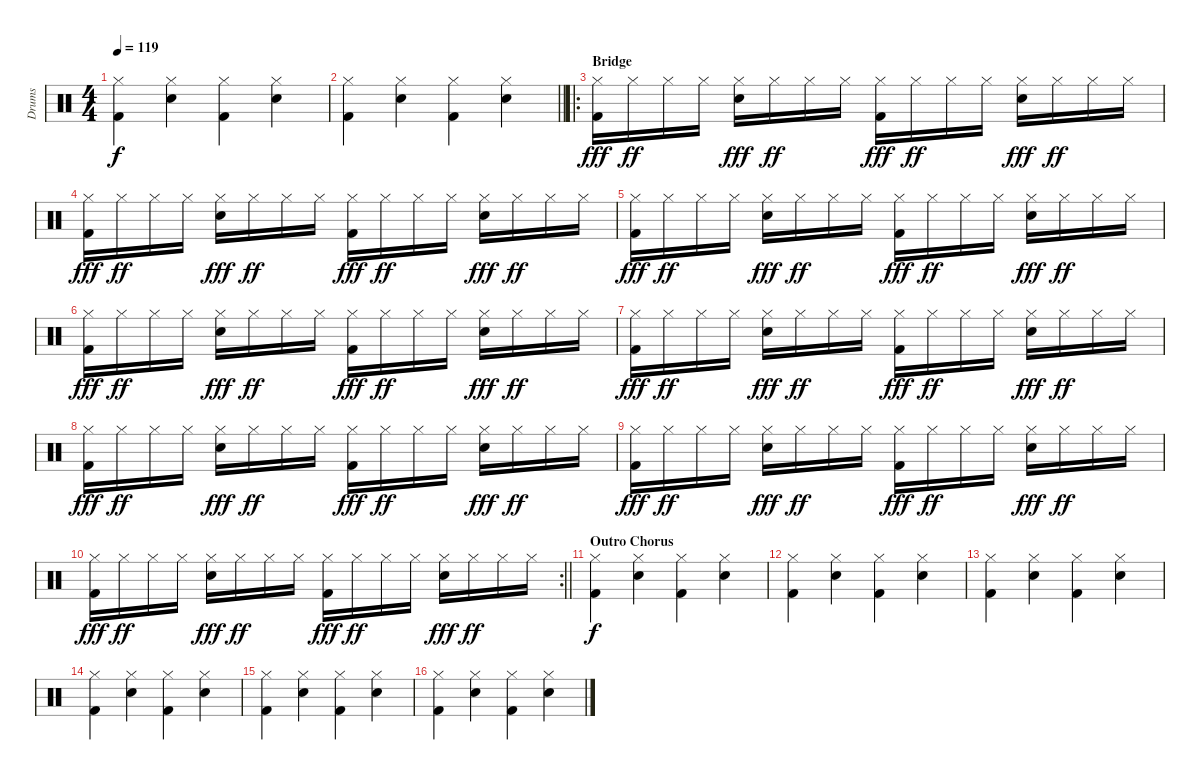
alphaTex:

\track ("Drums" "Drums") {instrument percussion}
\staff {score}
\articulation defaults
\ts (4 4)
\tempo 119
\clef neutral
\ks c
("Hi-Hat (closed)" "Kick (hit) 2").4{dy f} ("Hi-Hat (closed)" "Hand Clap (hit)").4 ("Hi-Hat (closed)" "Kick (hit) 2").4 ("Hi-Hat (closed)" "Hand Clap (hit)").4 |
\barLineRight lightlight
("Hi-Hat (closed)" "Kick (hit) 2").4 ("Hi-Hat (closed)" "Hand Clap (hit)").4 ("Hi-Hat (closed)" "Kick (hit) 2").4 ("Hi-Hat (closed)" "Hand Clap (hit)").4 |
\ro
\section ("" "Bridge")
("Hi-Hat (closed)" "Kick (hit) 2").16{dy fff} "Hi-Hat (closed)".16{dy ff} "Hi-Hat (closed)".16 "Hi-Hat (closed)".16 ("Hi-Hat (closed)" "Hand Clap (hit)").16{dy fff} "Hi-Hat (closed)".16{dy ff} "Hi-Hat (closed)".16 "Hi-Hat (closed)".16 ("Hi-Hat (closed)" "Kick (hit) 2").16{dy fff} "Hi-Hat (closed)".16{dy ff} "Hi-Hat (closed)".16 "Hi-Hat (closed)".16 ("Hi-Hat (closed)" "Hand Clap (hit)").16{dy fff} "Hi-Hat (closed)".16{dy ff} "Hi-Hat (closed)".16 "Hi-Hat (closed)".16 |
("Hi-Hat (closed)" "Kick (hit) 2").16{dy fff} "Hi-Hat (closed)".16{dy ff} "Hi-Hat (closed)".16 "Hi-Hat (closed)".16 ("Hi-Hat (closed)" "Hand Clap (hit)").16{dy fff} "Hi-Hat (closed)".16{dy ff} "Hi-Hat (closed)".16 "Hi-Hat (closed)".16 ("Hi-Hat (closed)" "Kick (hit) 2").16{dy fff} "Hi-Hat (closed)".16{dy ff} "Hi-Hat (closed)".16 "Hi-Hat (closed)".16 ("Hi-Hat (closed)" "Hand Clap (hit)").16{dy fff} "Hi-Hat (closed)".16{dy ff} "Hi-Hat (closed)".16 "Hi-Hat (closed)".16 |
("Hi-Hat (closed)" "Kick (hit) 2").16{dy fff} "Hi-Hat (closed)".16{dy ff} "Hi-Hat (closed)".16 "Hi-Hat (closed)".16 ("Hi-Hat (closed)" "Hand Clap (hit)").16{dy fff} "Hi-Hat (closed)".16{dy ff} "Hi-Hat (closed)".16 "Hi-Hat (closed)".16 ("Hi-Hat (closed)" "Kick (hit) 2").16{dy fff} "Hi-Hat (closed)".16{dy ff} "Hi-Hat (closed)".16 "Hi-Hat (closed)".16 ("Hi-Hat (closed)" "Hand Clap (hit)").16{dy fff} "Hi-Hat (closed)".16{dy ff} "Hi-Hat (closed)".16 "Hi-Hat (closed)".16 |
("Hi-Hat (closed)" "Kick (hit) 2").16{dy fff} "Hi-Hat (closed)".16{dy ff} "Hi-Hat (closed)".16 "Hi-Hat (closed)".16 ("Hi-Hat (closed)" "Hand Clap (hit)").16{dy fff} "Hi-Hat (closed)".16{dy ff} "Hi-Hat (closed)".16 "Hi-Hat (closed)".16 ("Hi-Hat (closed)" "Kick (hit) 2").16{dy fff} "Hi-Hat (closed)".16{dy ff} "Hi-Hat (closed)".16 "Hi-Hat (closed)".16 ("Hi-Hat (closed)" "Hand Clap (hit)").16{dy fff} "Hi-Hat (closed)".16{dy ff} "Hi-Hat (closed)".16 "Hi-Hat (closed)".16 |
("Hi-Hat (closed)" "Kick (hit) 2").16{dy fff} "Hi-Hat (closed)".16{dy ff} "Hi-Hat (closed)".16 "Hi-Hat (closed)".16 ("Hi-Hat (closed)" "Hand Clap (hit)").16{dy fff} "Hi-Hat (closed)".16{dy ff} "Hi-Hat (closed)".16 "Hi-Hat (closed)".16 ("Hi-Hat (closed)" "Kick (hit) 2").16{dy fff} "Hi-Hat (closed)".16{dy ff} "Hi-Hat (closed)".16 "Hi-Hat (closed)".16 ("Hi-Hat (closed)" "Hand Clap (hit)").16{dy fff} "Hi-Hat (closed)".16{dy ff} "Hi-Hat (closed)".16 "Hi-Hat (closed)".16 |
("Hi-Hat (closed)" "Kick (hit) 2").16{dy fff} "Hi-Hat (closed)".16{dy ff} "Hi-Hat (closed)".16 "Hi-Hat (closed)".16 ("Hi-Hat (closed)" "Hand Clap (hit)").16{dy fff} "Hi-Hat (closed)".16{dy ff} "Hi-Hat (closed)".16 "Hi-Hat (closed)".16 ("Hi-Hat (closed)" "Kick (hit) 2").16{dy fff} "Hi-Hat (closed)".16{dy ff} "Hi-Hat (closed)".16 "Hi-Hat (closed)".16 ("Hi-Hat (closed)" "Hand Clap (hit)").16{dy fff} "Hi-Hat (closed)".16{dy ff} "Hi-Hat (closed)".16 "Hi-Hat (closed)".16 |
("Hi-Hat (closed)" "Kick (hit) 2").16{dy fff} "Hi-Hat (closed)".16{dy ff} "Hi-Hat (closed)".16 "Hi-Hat (closed)".16 ("Hi-Hat (closed)" "Hand Clap (hit)").16{dy fff} "Hi-Hat (closed)".16{dy ff} "Hi-Hat (closed)".16 "Hi-Hat (closed)".16 ("Hi-Hat (closed)" "Kick (hit) 2").16{dy fff} "Hi-Hat (closed)".16{dy ff} "Hi-Hat (closed)".16 "Hi-Hat (closed)".16 ("Hi-Hat (closed)" "Hand Clap (hit)").16{dy fff} "Hi-Hat (closed)".16{dy ff} "Hi-Hat (closed)".16 "Hi-Hat (closed)".16 |
\rc 2
\barLineRight lightlight
("Hi-Hat (closed)" "Kick (hit) 2").16{dy fff} "Hi-Hat (closed)".16{dy ff} "Hi-Hat (closed)".16 "Hi-Hat (closed)".16 ("Hi-Hat (closed)" "Hand Clap (hit)").16{dy fff} "Hi-Hat (closed)".16{dy ff} "Hi-Hat (closed)".16 "Hi-Hat (closed)".16 ("Hi-Hat (closed)" "Kick (hit) 2").16{dy fff} "Hi-Hat (closed)".16{dy ff} "Hi-Hat (closed)".16 "Hi-Hat (closed)".16 ("Hi-Hat (closed)" "Hand Clap (hit)").16{dy fff} "Hi-Hat (closed)".16{dy ff} "Hi-Hat (closed)".16 "Hi-Hat (closed)".16 |
\section ("" "Outro Chorus")
("Hi-Hat (closed)" "Kick (hit) 2").4{dy f} ("Hi-Hat (closed)" "Hand Clap (hit)").4 ("Hi-Hat (closed)" "Kick (hit) 2").4 ("Hi-Hat (closed)" "Hand Clap (hit)").4 |
("Hi-Hat (closed)" "Kick (hit) 2").4 ("Hi-Hat (closed)" "Hand Clap (hit)").4 ("Hi-Hat (closed)" "Kick (hit) 2").4 ("Hi-Hat (closed)" "Hand Clap (hit)").4 |
("Hi-Hat (closed)" "Kick (hit) 2").4 ("Hi-Hat (closed)" "Hand Clap (hit)").4 ("Hi-Hat (closed)" "Kick (hit) 2").4 ("Hi-Hat (closed)" "Hand Clap (hit)").4 |
("Hi-Hat (closed)" "Kick (hit) 2").4 ("Hi-Hat (closed)" "Hand Clap (hit)").4 ("Hi-Hat (closed)" "Kick (hit) 2").4 ("Hi-Hat (closed)" "Hand Clap (hit)").4 |
("Hi-Hat (closed)" "Kick (hit) 2").4 ("Hi-Hat (closed)" "Hand Clap (hit)").4 ("Hi-Hat (closed)" "Kick (hit) 2").4 ("Hi-Hat (closed)" "Hand Clap (hit)").4 |
("Hi-Hat (closed)" "Kick (hit) 2").4 ("Hi-Hat (closed)" "Hand Clap (hit)").4 ("Hi-Hat (closed)" "Kick (hit) 2").4 ("Hi-Hat (closed)" "Hand Clap (hit)").4
